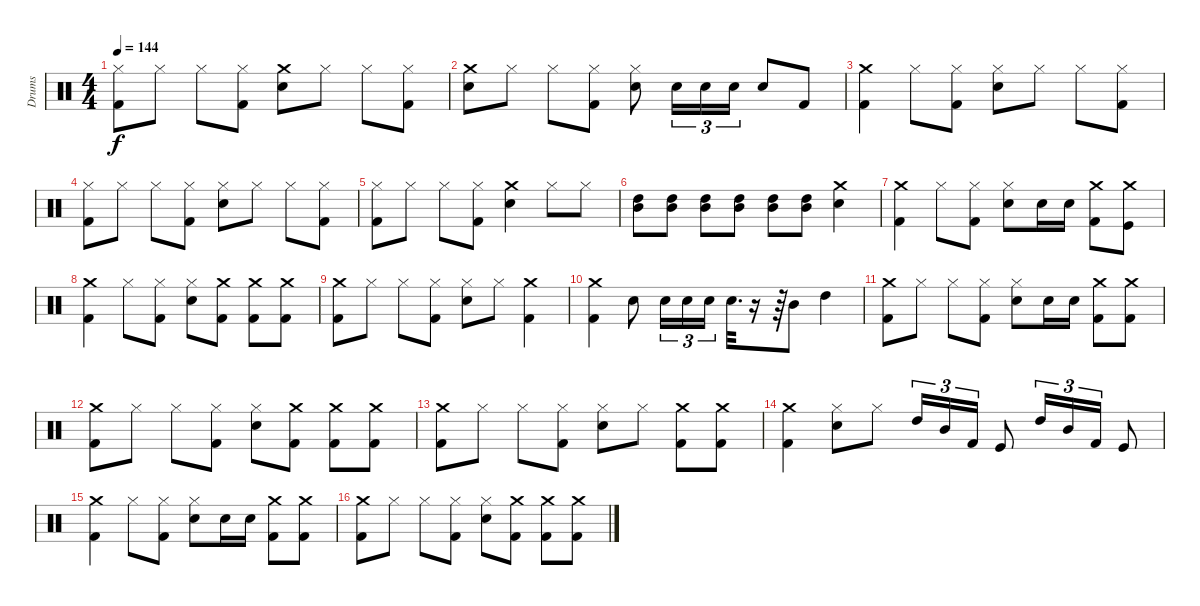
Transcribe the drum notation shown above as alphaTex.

\track ("Drums" "Drums") {instrument percussion}
\staff {score}
\articulation defaults
\ts (4 4)
\tempo 144
\clef neutral
\ks c
("Hi-Hat (closed)" "Kick (hit) 2").8{dy f} "Hi-Hat (closed)".8 "Hi-Hat (closed)".8 ("Kick (hit) 2" "Hi-Hat (closed)").8 ("Crash medium (hit)" "Snare (hit) 2").8 "Hi-Hat (closed)".8 "Hi-Hat (closed)".8 ("Kick (hit) 2" "Hi-Hat (closed)").8 |
("Snare (hit) 2" "Crash medium (hit)").8 "Hi-Hat (closed)".8 "Hi-Hat (closed)".8 ("Kick (hit) 2" "Hi-Hat (closed)").8 ("Snare (hit) 2" "Hi-Hat (closed)").8 "Snare (hit) 2".16{tu (3 2)} "Snare (hit) 2".16{tu (3 2)} "Snare (hit) 2".16{tu (3 2)} "Snare (hit) 2".8 "Kick (hit) 2".8 |
("Kick (hit) 2" "Crash medium (hit)").4 "Hi-Hat (closed)".8 ("Kick (hit) 2" "Hi-Hat (closed)").8 ("Snare (hit) 2" "Hi-Hat (closed)").8 "Hi-Hat (closed)".8 "Hi-Hat (closed)".8 ("Kick (hit) 2" "Hi-Hat (closed)").8 |
("Kick (hit) 2" "Hi-Hat (closed)").8 "Hi-Hat (closed)".8 "Hi-Hat (closed)".8 ("Kick (hit) 2" "Hi-Hat (closed)").8 ("Snare (hit) 2" "Hi-Hat (closed)").8 "Hi-Hat (closed)".8 "Hi-Hat (closed)".8 ("Kick (hit) 2" "Hi-Hat (closed)").8 |
("Hi-Hat (closed)" "Kick (hit) 2").8 "Hi-Hat (closed)".8 "Hi-Hat (closed)".8 ("Kick (hit) 2" "Hi-Hat (closed)").8 ("Crash medium (hit)" "Snare (hit) 2").4 "Hi-Hat (closed)".8 "Hi-Hat (closed)".8 |
("High Tom (hit)" "Mid Tom (hit)").8 ("Mid Tom (hit)" "High Tom (hit)").8 ("Mid Tom (hit)" "High Tom (hit)").8 ("Mid Tom (hit)" "High Tom (hit)").8 ("Mid Tom (hit)" "High Tom (hit)").8 ("Mid Tom (hit)" "High Tom (hit)").8 ("Snare (hit) 2" "Crash medium (hit)").4 |
("Crash medium (hit)" "Kick (hit) 2").4 "Hi-Hat (closed)".8 ("Kick (hit) 2" "Hi-Hat (closed)").8 ("Snare (hit) 2" "Hi-Hat (closed)").8 "Snare (hit) 2".16 "Snare (hit) 2".16 ("Crash medium (hit)" "Kick (hit) 2").8 ("Crash medium (hit)" "Kick (hit)").8 |
("Kick (hit) 2" "Crash medium (hit)").4 "Hi-Hat (closed)".8 ("Kick (hit) 2" "Hi-Hat (closed)").8 ("Hi-Hat (closed)" "Snare (hit) 2").8 ("Kick (hit) 2" "Crash medium (hit)").8 ("Kick (hit) 2" "Crash medium (hit)").8 ("Kick (hit) 2" "Crash medium (hit)").8 |
("Kick (hit) 2" "Crash medium (hit)").8 "Hi-Hat (closed)".8 "Hi-Hat (closed)".8 ("Kick (hit) 2" "Hi-Hat (closed)").8 ("Snare (hit) 2" "Hi-Hat (closed)").8 "Hi-Hat (closed)".8 ("Kick (hit) 2" "Crash medium (hit)").4 |
("Kick (hit) 2" "Crash medium (hit)").4 "Snare (hit) 2".8 "Snare (hit) 2".16{tu (3 2)} "Snare (hit) 2".16{tu (3 2)} "Snare (hit) 2".16{tu (3 2)} "Snare (hit) 2".32{d} r.16 r.64 "Mid Tom (hit)".8 "High Tom (hit)".4 |
("Kick (hit) 2" "Crash medium (hit)").8 "Hi-Hat (closed)".8 "Hi-Hat (closed)".8 ("Kick (hit) 2" "Hi-Hat (closed)").8 ("Snare (hit) 2" "Hi-Hat (closed)").8 "Snare (hit) 2".16 "Snare (hit) 2".16 ("Kick (hit) 2" "Crash medium (hit)").8 ("Kick (hit) 2" "Crash medium (hit)").8 |
("Kick (hit) 2" "Crash medium (hit)").8 "Hi-Hat (closed)".8 "Hi-Hat (closed)".8 ("Kick (hit) 2" "Hi-Hat (closed)").8 ("Snare (hit) 2" "Hi-Hat (closed)").8 ("Kick (hit) 2" "Crash medium (hit)").8 ("Kick (hit) 2" "Crash medium (hit)").8 ("Kick (hit) 2" "Crash medium (hit)").8 |
("Kick (hit) 2" "Crash medium (hit)").8 "Hi-Hat (closed)".8 "Hi-Hat (closed)".8 ("Kick (hit) 2" "Hi-Hat (closed)").8 ("Snare (hit) 2" "Hi-Hat (closed)").8 "Hi-Hat (closed)".8 ("Kick (hit) 2" "Crash medium (hit)").8 ("Kick (hit) 2" "Crash medium (hit)").8 |
("Kick (hit) 2" "Crash medium (hit)").4 ("Hi-Hat (closed)" "Snare (hit) 2").8 "Hi-Hat (closed)".8 "High Tom (hit)".16{tu (3 2)} "Mid Tom (hit)".16{tu (3 2)} "Kick (hit) 2".16{tu (3 2)} "Kick (hit)".8 "High Tom (hit)".16{tu (3 2)} "Mid Tom (hit)".16{tu (3 2)} "Kick (hit) 2".16{tu (3 2)} "Kick (hit)".8 |
("Kick (hit) 2" "Crash medium (hit)").4 "Hi-Hat (closed)".8 ("Kick (hit) 2" "Hi-Hat (closed)").8 ("Snare (hit) 2" "Hi-Hat (closed)").8 "Snare (hit) 2".16 "Snare (hit) 2".16 ("Crash medium (hit)" "Kick (hit) 2").8 ("Crash medium (hit)" "Kick (hit) 2").8 |
("Kick (hit) 2" "Crash medium (hit)").8 "Hi-Hat (closed)".8 "Hi-Hat (closed)".8 ("Kick (hit) 2" "Hi-Hat (closed)").8 ("Snare (hit) 2" "Hi-Hat (closed)").8 ("Kick (hit) 2" "Crash medium (hit)").8 ("Kick (hit) 2" "Crash medium (hit)").8 ("Kick (hit) 2" "Crash medium (hit)").8
